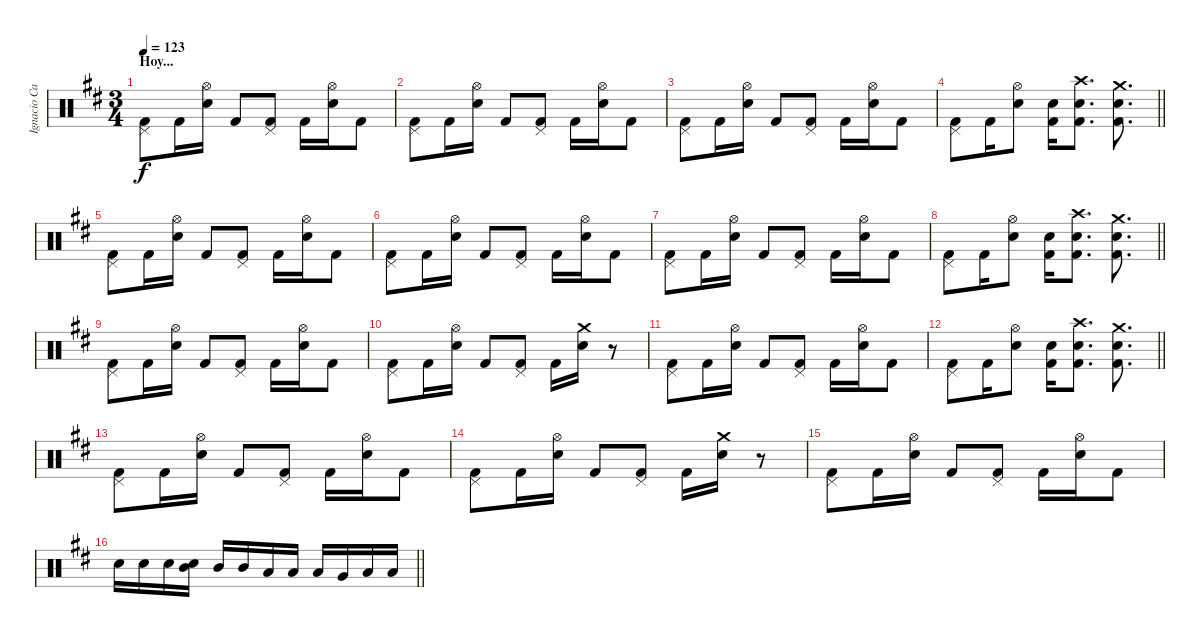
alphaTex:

\track ("Ignacio Cantera - Batería" "Ignacio Ca") {instrument percussion}
\staff {score}
\articulation defaults
\ts (3 4)
\section ("" "Hoy...")
\tempo 123
\clef neutral
\ks bminor
("Pedal Hi-Hat (hit)" "Kick (hit) 2").8{dy f} "Kick (hit) 2".16 ("Hi-Hat (open)" "Snare (hit) 2").16 "Kick (hit) 2".8 ("Pedal Hi-Hat (hit)" "Kick (hit) 2").8 "Kick (hit) 2".16 ("Hi-Hat (open)" "Snare (hit) 2").16 "Kick (hit) 2".8 |
("Pedal Hi-Hat (hit)" "Kick (hit) 2").8 "Kick (hit) 2".16 ("Hi-Hat (open)" "Snare (hit) 2").16 "Kick (hit) 2".8 ("Pedal Hi-Hat (hit)" "Kick (hit) 2").8 "Kick (hit) 2".16 ("Hi-Hat (open)" "Snare (hit) 2").16 "Kick (hit) 2".8 |
("Pedal Hi-Hat (hit)" "Kick (hit) 2").8 "Kick (hit) 2".16 ("Hi-Hat (open)" "Snare (hit) 2").16 "Kick (hit) 2".8 ("Pedal Hi-Hat (hit)" "Kick (hit) 2").8 "Kick (hit) 2".16 ("Hi-Hat (open)" "Snare (hit) 2").16 "Kick (hit) 2".8 |
\barLineRight lightlight
("Pedal Hi-Hat (hit)" "Kick (hit) 2").8 "Kick (hit) 2".16 ("Hi-Hat (open)" "Snare (hit) 2").8 ("Electric Snare (hit)" "Kick (hit) 2").16 ("Crash high (hit)" "Snare (hit) 2" "Kick (hit) 2").8{d} ("Crash medium (hit)" "Snare (hit) 2" "Kick (hit) 2").8{d} |
("Pedal Hi-Hat (hit)" "Kick (hit) 2").8 "Kick (hit) 2".16 ("Hi-Hat (open)" "Snare (hit) 2").16 "Kick (hit) 2".8 ("Pedal Hi-Hat (hit)" "Kick (hit) 2").8 "Kick (hit) 2".16 ("Hi-Hat (open)" "Snare (hit) 2").16 "Kick (hit) 2".8 |
("Pedal Hi-Hat (hit)" "Kick (hit) 2").8 "Kick (hit) 2".16 ("Hi-Hat (open)" "Snare (hit) 2").16 "Kick (hit) 2".8 ("Pedal Hi-Hat (hit)" "Kick (hit) 2").8 "Kick (hit) 2".16 ("Hi-Hat (open)" "Snare (hit) 2").16 "Kick (hit) 2".8 |
("Pedal Hi-Hat (hit)" "Kick (hit) 2").8 "Kick (hit) 2".16 ("Hi-Hat (open)" "Snare (hit) 2").16 "Kick (hit) 2".8 ("Pedal Hi-Hat (hit)" "Kick (hit) 2").8 "Kick (hit) 2".16 ("Hi-Hat (open)" "Snare (hit) 2").16 "Kick (hit) 2".8 |
\barLineRight lightlight
("Pedal Hi-Hat (hit)" "Kick (hit) 2").8 "Kick (hit) 2".16 ("Hi-Hat (open)" "Snare (hit) 2").8 ("Electric Snare (hit)" "Kick (hit) 2").16 ("Crash high (hit)" "Snare (hit) 2" "Kick (hit) 2").8{d} ("Crash medium (hit)" "Snare (hit) 2" "Kick (hit) 2").8{d} |
("Pedal Hi-Hat (hit)" "Kick (hit) 2").8 "Kick (hit) 2".16 ("Hi-Hat (open)" "Snare (hit) 2").16 "Kick (hit) 2".8 ("Pedal Hi-Hat (hit)" "Kick (hit) 2").8 "Kick (hit) 2".16 ("Hi-Hat (open)" "Snare (hit) 2").16 "Kick (hit) 2".8 |
("Pedal Hi-Hat (hit)" "Kick (hit) 2").8 "Kick (hit) 2".16 ("Hi-Hat (open)" "Snare (hit) 2").16 "Kick (hit) 2".8 ("Pedal Hi-Hat (hit)" "Kick (hit) 2").8 "Kick (hit) 2".16 ("Crash medium (hit)" "Snare (hit) 2").16 r.8 |
("Pedal Hi-Hat (hit)" "Kick (hit) 2").8 "Kick (hit) 2".16 ("Hi-Hat (open)" "Snare (hit) 2").16 "Kick (hit) 2".8 ("Pedal Hi-Hat (hit)" "Kick (hit) 2").8 "Kick (hit) 2".16 ("Hi-Hat (open)" "Snare (hit) 2").16 "Kick (hit) 2".8 |
\barLineRight lightlight
("Pedal Hi-Hat (hit)" "Kick (hit) 2").8 "Kick (hit) 2".16 ("Hi-Hat (open)" "Snare (hit) 2").8 ("Electric Snare (hit)" "Kick (hit) 2").16 ("Crash high (hit)" "Snare (hit) 2" "Kick (hit) 2").8{d} ("Crash medium (hit)" "Snare (hit) 2" "Kick (hit) 2").8{d} |
("Pedal Hi-Hat (hit)" "Kick (hit) 2").8 "Kick (hit) 2".16 ("Hi-Hat (open)" "Snare (hit) 2").16 "Kick (hit) 2".8 ("Pedal Hi-Hat (hit)" "Kick (hit) 2").8 "Kick (hit) 2".16 ("Hi-Hat (open)" "Snare (hit) 2").16 "Kick (hit) 2".8 |
("Pedal Hi-Hat (hit)" "Kick (hit) 2").8 "Kick (hit) 2".16 ("Hi-Hat (open)" "Snare (hit) 2").16 "Kick (hit) 2".8 ("Pedal Hi-Hat (hit)" "Kick (hit) 2").8 "Kick (hit) 2".16 ("Crash medium (hit)" "Snare (hit) 2").16 r.8 |
("Pedal Hi-Hat (hit)" "Kick (hit) 2").8 "Kick (hit) 2".16 ("Hi-Hat (open)" "Snare (hit) 2").16 "Kick (hit) 2".8 ("Pedal Hi-Hat (hit)" "Kick (hit) 2").8 "Kick (hit) 2".16 ("Hi-Hat (open)" "Snare (hit) 2").16 "Kick (hit) 2".8 |
\barLineRight lightlight "Electric Snare (hit)".16 "Electric Snare (hit)".16 "Electric Snare (hit)".16
("Mid Tom (hit)" "Snare (hit) 2").16 "Mid Tom (hit)".16 "Mid Tom (hit)".16 "Low Tom (hit)".16 "Low Tom (hit)".16 "Low Tom (hit)".16 "Very Low Tom (hit)".16 "Low Floor Tom (hit)".16 "Low Floor Tom (hit)".16
